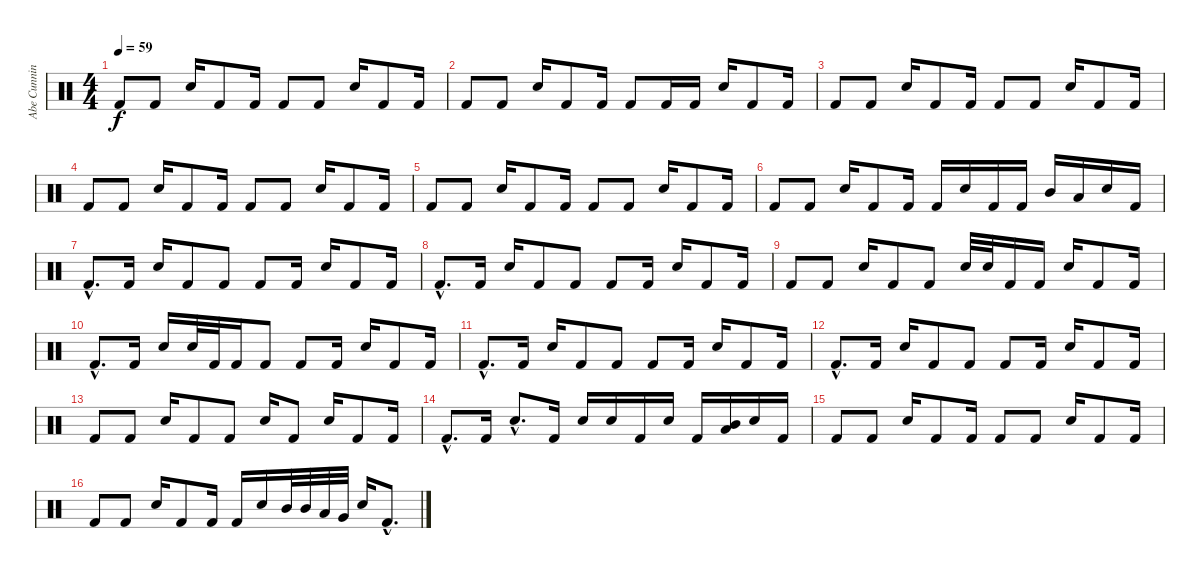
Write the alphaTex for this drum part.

\track ("Abe Cunningham Toms& Snare" "Abe Cunnin") {instrument percussion}
\staff {score}
\articulation defaults
\ts (4 4)
\tempo 59
\clef neutral
\ks c "Kick (hit) 2".8{dy f} "Kick (hit) 2".8 "Snare (hit) 2".16 "Kick (hit) 2".8 "Kick (hit) 2".16 "Kick (hit) 2".8 "Kick (hit) 2".8 "Snare (hit) 2".16 "Kick (hit) 2".8 "Kick (hit) 2".16
|
"Kick (hit) 2".8 "Kick (hit) 2".8 "Snare (hit) 2".16 "Kick (hit) 2".8 "Kick (hit) 2".16 "Kick (hit) 2".8 "Kick (hit) 2".16 "Kick (hit) 2".16 "Snare (hit) 2".16 "Kick (hit) 2".8 "Kick (hit) 2".16 |
"Kick (hit) 2".8 "Kick (hit) 2".8 "Snare (hit) 2".16 "Kick (hit) 2".8 "Kick (hit) 2".16 "Kick (hit) 2".8 "Kick (hit) 2".8 "Snare (hit) 2".16 "Kick (hit) 2".8 "Kick (hit) 2".16 |
"Kick (hit) 2".8 "Kick (hit) 2".8 "Snare (hit) 2".16 "Kick (hit) 2".8 "Kick (hit) 2".16 "Kick (hit) 2".8 "Kick (hit) 2".8 "Snare (hit) 2".16 "Kick (hit) 2".8 "Kick (hit) 2".16 |
"Kick (hit) 2".8 "Kick (hit) 2".8 "Snare (hit) 2".16 "Kick (hit) 2".8 "Kick (hit) 2".16 "Kick (hit) 2".8 "Kick (hit) 2".8 "Snare (hit) 2".16 "Kick (hit) 2".8 "Kick (hit) 2".16 |
"Kick (hit) 2".8 "Kick (hit) 2".8 "Snare (hit) 2".16 "Kick (hit) 2".8 "Kick (hit) 2".16 "Kick (hit) 2".16 "Snare (hit) 2".16 "Kick (hit) 2".16 "Kick (hit) 2".16 "Mid Tom (hit)".16 "Low Tom (hit)".16 "Snare (hit) 2".16 "Kick (hit) 2".16 |
"Kick (hit) 2"{hac}.8{d} "Kick (hit) 2".16 "Snare (hit) 2".16 "Kick (hit) 2".8 "Kick (hit) 2".8 "Kick (hit) 2".8 "Kick (hit) 2".16 "Snare (hit) 2".16 "Kick (hit) 2".8 "Kick (hit) 2".16 |
"Kick (hit) 2"{hac}.8{d} "Kick (hit) 2".16 "Snare (hit) 2".16 "Kick (hit) 2".8 "Kick (hit) 2".8 "Kick (hit) 2".8 "Kick (hit) 2".16 "Snare (hit) 2".16 "Kick (hit) 2".8 "Kick (hit) 2".16 |
"Kick (hit) 2".8 "Kick (hit) 2".8 "Snare (hit) 2".16 "Kick (hit) 2".8 "Kick (hit) 2".8 "Snare (hit) 2".32 "Snare (hit) 2".32 "Kick (hit) 2".16 "Kick (hit) 2".16 "Electric Snare (hit)".16 "Kick (hit) 2".8 "Kick (hit) 2".16 |
"Kick (hit) 2"{hac}.8{d} "Kick (hit) 2".16 "Snare (hit) 2".16 "Snare (hit) 2".32 "Kick (hit) 2".32 "Kick (hit) 2".16 "Kick (hit) 2".8 "Kick (hit) 2".8 "Kick (hit) 2".16 "Snare (hit) 2".16 "Kick (hit) 2".8 "Kick (hit) 2".16 |
"Kick (hit) 2"{hac}.8{d} "Kick (hit) 2".16 "Snare (hit) 2".16 "Kick (hit) 2".8 "Kick (hit) 2".8 "Kick (hit) 2".8 "Kick (hit) 2".16 "Snare (hit) 2".16 "Kick (hit) 2".8 "Kick (hit) 2".16 |
"Kick (hit) 2"{hac}.8{d} "Kick (hit) 2".16 "Snare (hit) 2".16 "Kick (hit) 2".8 "Kick (hit) 2".8 "Kick (hit) 2".8 "Kick (hit) 2".16 "Snare (hit) 2".16 "Kick (hit) 2".8 "Kick (hit) 2".16 |
"Kick (hit) 2".8 "Kick (hit) 2".8 "Snare (hit) 2".16 "Kick (hit) 2".8 "Kick (hit) 2".8 "Snare (hit) 2".16 "Kick (hit) 2".8 "Snare (hit) 2".16 "Kick (hit) 2".8 "Kick (hit) 2".16 |
"Kick (hit) 2"{hac}.8{d} "Kick (hit) 2".16 "Snare (hit) 2"{hac}.8{d} "Kick (hit) 2".16 "Snare (hit) 2".16 "Snare (hit) 2".16 "Kick (hit) 2".16 "Snare (hit) 2".16 "Kick (hit) 2".16 ("Mid Tom (hit)" "Low Tom (hit)").16 "Snare (hit) 2".16 "Kick (hit) 2".16 |
"Kick (hit) 2".8 "Kick (hit) 2".8 "Snare (hit) 2".16 "Kick (hit) 2".8 "Kick (hit) 2".16 "Kick (hit) 2".8 "Kick (hit) 2".8 "Snare (hit) 2".16 "Kick (hit) 2".8 "Kick (hit) 2".16 |
"Kick (hit) 2".8 "Kick (hit) 2".8 "Snare (hit) 2".16 "Kick (hit) 2".8 "Kick (hit) 2".16 "Kick (hit) 2".16 "Snare (hit) 2".16 "Mid Tom (hit)".32 "Mid Tom (hit)".32 "Low Tom (hit)".32 "Very Low Tom (hit)".32 "Snare (hit) 2".16 "Kick (hit) 2"{hac}.8{d}
